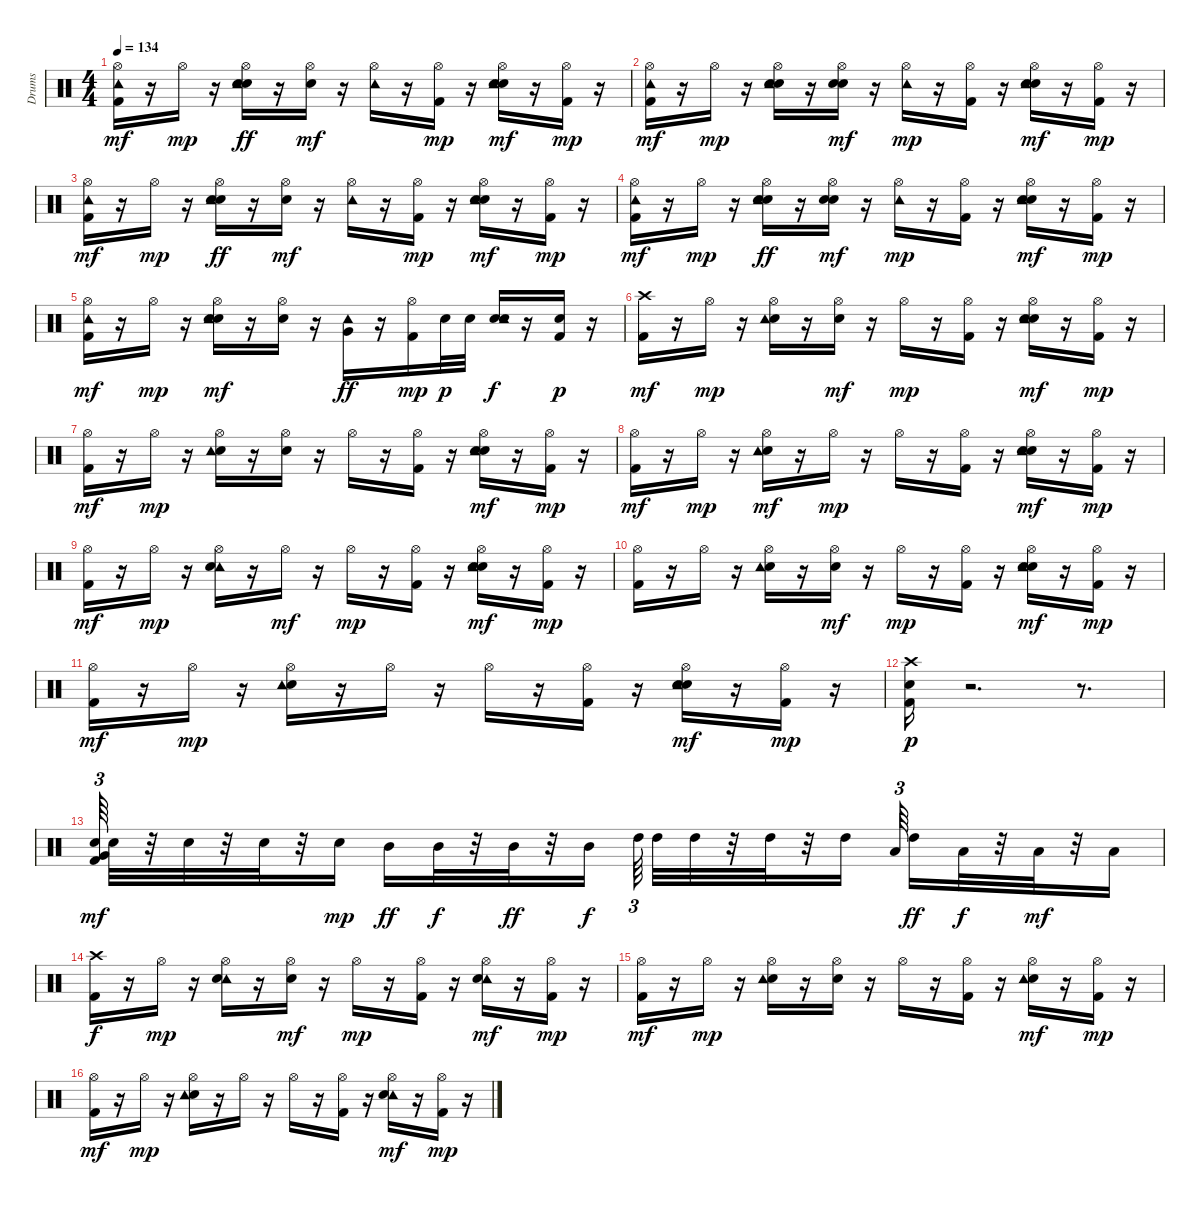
\track ("Drums" "Drums") {instrument percussion}
\staff {score}
\articulation defaults
\ts (4 4)
\tempo 134
\clef neutral
\ks c
("Kick (hit) 2" "Hi-Hat (open)" "Tambourine (hit)").16{dy mf} r.16 "Hi-Hat (open)".16{dy mp} r.16 ("Hi-Hat (open)" "Snare (hit) 2" "Hand Clap (hit)" "Tambourine (hit)").16{dy ff} r.16 ("Hi-Hat (open)" "Hand Clap (hit)").16{dy mf} r.16 ("Hi-Hat (open)" "Tambourine (hit)").16 r.16 ("Kick (hit) 2" "Hi-Hat (open)").16{dy mp} r.16 ("Hi-Hat (open)" "Snare (hit) 2" "Hand Clap (hit)" "Tambourine (hit)").16{dy mf} r.16 ("Kick (hit) 2" "Hi-Hat (open)").16{dy mp} r.16 |
("Hi-Hat (open)" "Tambourine (hit)" "Kick (hit) 2").16{dy mf} r.16 "Hi-Hat (open)".16{dy mp} r.16 ("Hand Clap (hit)" "Tambourine (hit)" "Hi-Hat (open)" "Snare (hit) 2").16 r.16 ("Hi-Hat (open)" "Snare (hit) 2" "Hand Clap (hit)").16{dy mf} r.16 ("Tambourine (hit)" "Hi-Hat (open)").16{dy mp} r.16 ("Kick (hit) 2" "Hi-Hat (open)").16 r.16 ("Hi-Hat (open)" "Hand Clap (hit)" "Tambourine (hit)" "Snare (hit) 2").16{dy mf} r.16 ("Kick (hit) 2" "Hi-Hat (open)").16{dy mp} r.16 |
("Kick (hit) 2" "Hi-Hat (open)" "Tambourine (hit)").16{dy mf} r.16 "Hi-Hat (open)".16{dy mp} r.16 ("Hi-Hat (open)" "Snare (hit) 2" "Hand Clap (hit)" "Tambourine (hit)").16{dy ff} r.16 ("Hi-Hat (open)" "Hand Clap (hit)").16{dy mf} r.16 ("Hi-Hat (open)" "Tambourine (hit)").16 r.16 ("Kick (hit) 2" "Hi-Hat (open)").16{dy mp} r.16 ("Hi-Hat (open)" "Snare (hit) 2" "Hand Clap (hit)" "Tambourine (hit)").16{dy mf} r.16 ("Kick (hit) 2" "Hi-Hat (open)").16{dy mp} r.16 |
("Kick (hit) 2" "Hi-Hat (open)" "Tambourine (hit)").16{dy mf} r.16 "Hi-Hat (open)".16{dy mp} r.16 ("Hi-Hat (open)" "Snare (hit) 2" "Hand Clap (hit)" "Tambourine (hit)").16{dy ff} r.16 ("Hi-Hat (open)" "Snare (hit) 2" "Hand Clap (hit)").16{dy mf} r.16 ("Tambourine (hit)" "Hi-Hat (open)").16{dy mp} r.16 ("Hi-Hat (open)" "Kick (hit) 2").16 r.16 ("Hi-Hat (open)" "Snare (hit) 2" "Hand Clap (hit)" "Tambourine (hit)").16{dy mf} r.16 ("Kick (hit) 2" "Hi-Hat (open)").16{dy mp} r.16 |
("Kick (hit) 2" "Hi-Hat (open)" "Tambourine (hit)").16{dy mf} r.16 "Hi-Hat (open)".16{dy mp} r.16 ("Snare (hit) 2" "Hand Clap (hit)" "Tambourine (hit)" "Hi-Hat (open)").16{dy mf} r.16 ("Hand Clap (hit)" "Hi-Hat (open)").16 r.16 ("Tambourine (hit)" "Very Low Tom (hit)").16{dy ff} r.16 ("Hi-Hat (open)" "Kick (hit) 2").16{dy mp} "Snare (hit) 2".32{dy p} "Snare (hit) 2".32 ("Snare (hit) 2" "Hand Clap (hit)" "Tambourine (hit)").16{dy f} r.16 ("Snare (hit) 2" "Kick (hit) 2").16{dy p} r.16 |
("Crash high (hit)" "Kick (hit) 2").16{dy mf} r.16 "Hi-Hat (open)".16{dy mp} r.16 ("Hi-Hat (open)" "Snare (hit) 2" "Tambourine (hit)").16 r.16 ("Hi-Hat (open)" "Snare (hit) 2").16{dy mf} r.16 "Hi-Hat (open)".16{dy mp} r.16 ("Kick (hit) 2" "Hi-Hat (open)").16 r.16 ("Hi-Hat (open)" "Snare (hit) 2" "Hand Clap (hit)" "Tambourine (hit)").16{dy mf} r.16 ("Kick (hit) 2" "Hi-Hat (open)").16{dy mp} r.16 |
("Kick (hit) 2" "Hi-Hat (open)").16{dy mf} r.16 "Hi-Hat (open)".16{dy mp} r.16 ("Hi-Hat (open)" "Snare (hit) 2" "Tambourine (hit)").16 r.16 ("Hi-Hat (open)" "Snare (hit) 2").16 r.16 "Hi-Hat (open)".16 r.16 ("Kick (hit) 2" "Hi-Hat (open)").16 r.16 ("Hand Clap (hit)" "Hi-Hat (open)" "Snare (hit) 2" "Tambourine (hit)").16{dy mf} r.16 ("Kick (hit) 2" "Hi-Hat (open)").16{dy mp} r.16 |
("Kick (hit) 2" "Hi-Hat (open)").16{dy mf} r.16 "Hi-Hat (open)".16{dy mp} r.16 ("Snare (hit) 2" "Tambourine (hit)" "Hi-Hat (open)").16{dy mf} r.16 "Hi-Hat (open)".16{dy mp} r.16 "Hi-Hat (open)".16 r.16 ("Kick (hit) 2" "Hi-Hat (open)").16 r.16 ("Hi-Hat (open)" "Snare (hit) 2" "Hand Clap (hit)" "Tambourine (hit)").16{dy mf} r.16 ("Kick (hit) 2" "Hi-Hat (open)").16{dy mp} r.16 |
("Kick (hit) 2" "Hi-Hat (open)").16{dy mf} r.16 "Hi-Hat (open)".16{dy mp} r.16 ("Tambourine (hit)" "Hi-Hat (open)" "Snare (hit) 2").16 r.16 "Hi-Hat (open)".16{dy mf} r.16 "Hi-Hat (open)".16{dy mp} r.16 ("Kick (hit) 2" "Hi-Hat (open)").16 r.16 ("Hand Clap (hit)" "Hi-Hat (open)" "Snare (hit) 2" "Tambourine (hit)").16{dy mf} r.16 ("Kick (hit) 2" "Hi-Hat (open)").16{dy mp} r.16 |
("Kick (hit) 2" "Hi-Hat (open)").16 r.16 "Hi-Hat (open)".16 r.16 ("Hi-Hat (open)" "Snare (hit) 2" "Tambourine (hit)").16 r.16 ("Hi-Hat (open)" "Snare (hit) 2").16{dy mf} r.16 "Hi-Hat (open)".16{dy mp} r.16 ("Kick (hit) 2" "Hi-Hat (open)").16 r.16 ("Hand Clap (hit)" "Tambourine (hit)" "Hi-Hat (open)" "Snare (hit) 2").16{dy mf} r.16 ("Kick (hit) 2" "Hi-Hat (open)").16{dy mp} r.16 |
("Kick (hit) 2" "Hi-Hat (open)").16{dy mf} r.16 "Hi-Hat (open)".16{dy mp} r.16 ("Hi-Hat (open)" "Snare (hit) 2" "Tambourine (hit)").16 r.16 "Hi-Hat (open)".16 r.16 "Hi-Hat (open)".16 r.16 ("Kick (hit) 2" "Hi-Hat (open)").16 r.16 ("Hi-Hat (open)" "Snare (hit) 2" "Hand Clap (hit)" "Tambourine (hit)").16{dy mf} r.16 ("Kick (hit) 2" "Hi-Hat (open)").16{dy mp} r.16 |
("Kick (hit) 2" "Snare (hit) 2" "Crash high (hit)").16{dy p} r.2{d} r.8{d} |
("Kick (hit) 2" "Snare (hit) 2" "Very Low Tom (hit)").64{tu (3 2) dy mf} "Snare (hit) 2".32 r.32 "Snare (hit) 2".32 r.32 "Snare (hit) 2".32 r.32 "Snare (hit) 2".16{dy mp} "Mid Tom (hit)".16{dy ff} "Mid Tom (hit)".32{dy f} r.32 "Mid Tom (hit)".32{dy ff} r.32 "Mid Tom (hit)".16{dy f} "High Tom (hit)".64{tu (3 2) beam splitsecondary} "High Tom (hit)".32 "High Tom (hit)".32 r.32 "High Tom (hit)".32 r.32 "High Tom (hit)".16 "Low Tom (hit)".64{tu (3 2)} "High Tom (hit)".16{dy ff} "Low Tom (hit)".32{dy f} r.32 "Low Tom (hit)".32{dy mf} r.32 "Low Tom (hit)".16 |
("Kick (hit) 2" "Crash high (hit)").16{dy f} r.16 "Hi-Hat (open)".16{dy mp} r.16 ("Hi-Hat (open)" "Tambourine (hit)" "Snare (hit) 2").16 r.16 ("Hi-Hat (open)" "Snare (hit) 2").16{dy mf} r.16 "Hi-Hat (open)".16{dy mp} r.16 ("Kick (hit) 2" "Hi-Hat (open)").16 r.16 ("Hi-Hat (open)" "Tambourine (hit)" "Snare (hit) 2").16{dy mf} r.16 ("Kick (hit) 2" "Hi-Hat (open)").16{dy mp} r.16 |
("Kick (hit) 2" "Hi-Hat (open)").16{dy mf} r.16 "Hi-Hat (open)".16{dy mp} r.16 ("Hi-Hat (open)" "Snare (hit) 2" "Tambourine (hit)").16 r.16 ("Snare (hit) 2" "Hi-Hat (open)").16 r.16 "Hi-Hat (open)".16 r.16 ("Kick (hit) 2" "Hi-Hat (open)").16 r.16 ("Hi-Hat (open)" "Snare (hit) 2" "Tambourine (hit)").16{dy mf} r.16 ("Kick (hit) 2" "Hi-Hat (open)").16{dy mp} r.16 |
("Kick (hit) 2" "Hi-Hat (open)").16{dy mf} r.16 "Hi-Hat (open)".16{dy mp} r.16 ("Hi-Hat (open)" "Snare (hit) 2" "Tambourine (hit)").16 r.16 "Hi-Hat (open)".16 r.16 "Hi-Hat (open)".16 r.16 ("Kick (hit) 2" "Hi-Hat (open)").16 r.16 ("Tambourine (hit)" "Hi-Hat (open)" "Snare (hit) 2").16{dy mf} r.16 ("Kick (hit) 2" "Hi-Hat (open)").16{dy mp} r.16
